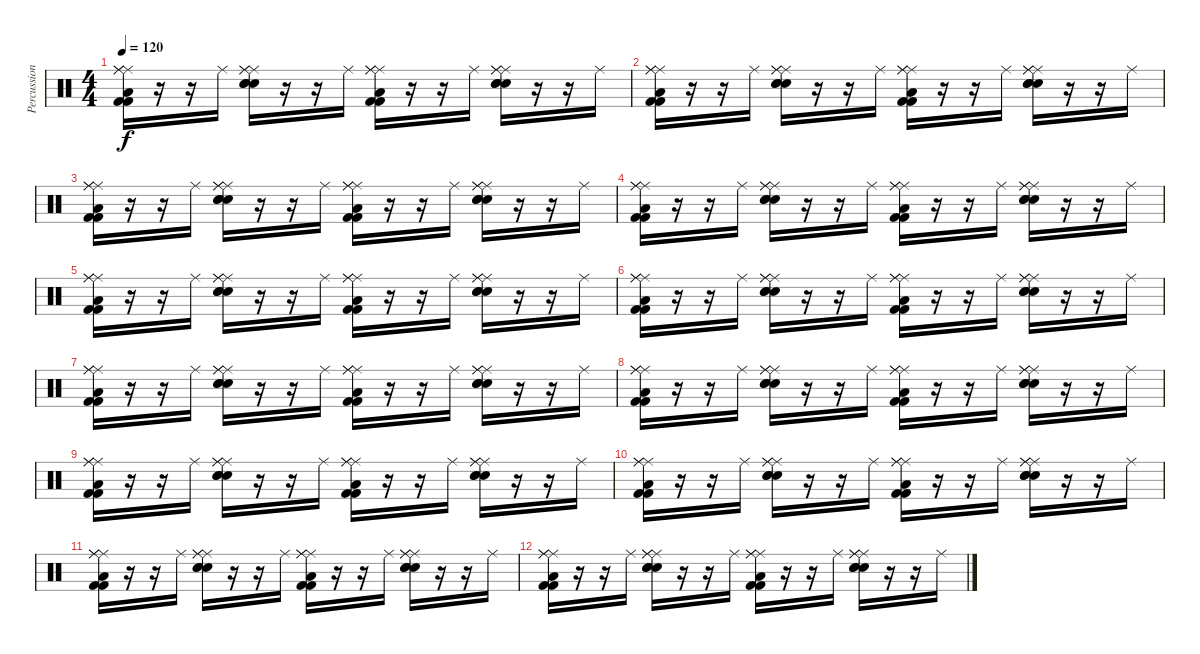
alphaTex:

\track ("Percussion" "Percussion") {instrument percussion}
\staff {score}
\articulation defaults
\ts (4 4)
\tempo 120
\clef neutral
\ks c
("Ride (middle)" "Ride (middle)" "Ride (middle)" "Low Floor Tom (hit)" "Kick (hit) 2" "Kick (hit) 2").16{dy f} r.16 r.16 "Ride (middle)".16 ("Ride (middle)" "Ride (middle)" "Ride (middle)" "Snare (hit) 2" "Snare (hit) 2" "Snare (hit) 2").16 r.16 r.16 "Ride (middle)".16 ("Ride (middle)" "Ride (middle)" "Ride (middle)" "Low Floor Tom (hit)" "Kick (hit) 2" "Kick (hit) 2").16 r.16 r.16 "Ride (middle)".16 ("Ride (middle)" "Ride (middle)" "Ride (middle)" "Snare (hit) 2" "Snare (hit) 2" "Snare (hit) 2").16 r.16 r.16 "Ride (middle)".16 |
("Ride (middle)" "Ride (middle)" "Ride (middle)" "Low Floor Tom (hit)" "Kick (hit) 2" "Kick (hit) 2").16 r.16 r.16 "Ride (middle)".16 ("Ride (middle)" "Ride (middle)" "Ride (middle)" "Snare (hit) 2" "Snare (hit) 2" "Snare (hit) 2").16 r.16 r.16 "Ride (middle)".16 ("Ride (middle)" "Ride (middle)" "Ride (middle)" "Low Floor Tom (hit)" "Kick (hit) 2" "Kick (hit) 2").16 r.16 r.16 "Ride (middle)".16 ("Ride (middle)" "Ride (middle)" "Ride (middle)" "Snare (hit) 2" "Snare (hit) 2" "Snare (hit) 2").16 r.16 r.16 "Ride (middle)".16 |
("Ride (middle)" "Ride (middle)" "Ride (middle)" "Low Floor Tom (hit)" "Kick (hit) 2" "Kick (hit) 2").16 r.16 r.16 "Ride (middle)".16 ("Ride (middle)" "Ride (middle)" "Ride (middle)" "Snare (hit) 2" "Snare (hit) 2" "Snare (hit) 2").16 r.16 r.16 "Ride (middle)".16 ("Ride (middle)" "Ride (middle)" "Ride (middle)" "Low Floor Tom (hit)" "Kick (hit) 2" "Kick (hit) 2").16 r.16 r.16 "Ride (middle)".16 ("Ride (middle)" "Ride (middle)" "Ride (middle)" "Snare (hit) 2" "Snare (hit) 2" "Snare (hit) 2").16 r.16 r.16 "Ride (middle)".16 |
("Ride (middle)" "Ride (middle)" "Ride (middle)" "Low Floor Tom (hit)" "Kick (hit) 2" "Kick (hit) 2").16 r.16 r.16 "Ride (middle)".16 ("Ride (middle)" "Ride (middle)" "Ride (middle)" "Snare (hit) 2" "Snare (hit) 2" "Snare (hit) 2").16 r.16 r.16 "Ride (middle)".16 ("Ride (middle)" "Ride (middle)" "Ride (middle)" "Low Floor Tom (hit)" "Kick (hit) 2" "Kick (hit) 2").16 r.16 r.16 "Ride (middle)".16 ("Ride (middle)" "Ride (middle)" "Ride (middle)" "Snare (hit) 2" "Snare (hit) 2" "Snare (hit) 2").16 r.16 r.16 "Ride (middle)".16 |
("Ride (middle)" "Ride (middle)" "Ride (middle)" "Low Floor Tom (hit)" "Kick (hit) 2" "Kick (hit) 2").16 r.16 r.16 "Ride (middle)".16 ("Ride (middle)" "Ride (middle)" "Ride (middle)" "Snare (hit) 2" "Snare (hit) 2" "Snare (hit) 2").16 r.16 r.16 "Ride (middle)".16 ("Ride (middle)" "Ride (middle)" "Ride (middle)" "Low Floor Tom (hit)" "Kick (hit) 2" "Kick (hit) 2").16 r.16 r.16 "Ride (middle)".16 ("Ride (middle)" "Ride (middle)" "Ride (middle)" "Snare (hit) 2" "Snare (hit) 2" "Snare (hit) 2").16 r.16 r.16 "Ride (middle)".16 |
("Ride (middle)" "Ride (middle)" "Ride (middle)" "Low Floor Tom (hit)" "Kick (hit) 2" "Kick (hit) 2").16 r.16 r.16 "Ride (middle)".16 ("Ride (middle)" "Ride (middle)" "Ride (middle)" "Snare (hit) 2" "Snare (hit) 2" "Snare (hit) 2").16 r.16 r.16 "Ride (middle)".16 ("Ride (middle)" "Ride (middle)" "Ride (middle)" "Low Floor Tom (hit)" "Kick (hit) 2" "Kick (hit) 2").16 r.16 r.16 "Ride (middle)".16 ("Ride (middle)" "Ride (middle)" "Ride (middle)" "Snare (hit) 2" "Snare (hit) 2" "Snare (hit) 2").16 r.16 r.16 "Ride (middle)".16 |
("Ride (middle)" "Ride (middle)" "Ride (middle)" "Low Floor Tom (hit)" "Kick (hit) 2" "Kick (hit) 2").16 r.16 r.16 "Ride (middle)".16 ("Ride (middle)" "Ride (middle)" "Ride (middle)" "Snare (hit) 2" "Snare (hit) 2" "Snare (hit) 2").16 r.16 r.16 "Ride (middle)".16 ("Ride (middle)" "Ride (middle)" "Ride (middle)" "Low Floor Tom (hit)" "Kick (hit) 2" "Kick (hit) 2").16 r.16 r.16 "Ride (middle)".16 ("Ride (middle)" "Ride (middle)" "Ride (middle)" "Snare (hit) 2" "Snare (hit) 2" "Snare (hit) 2").16 r.16 r.16 "Ride (middle)".16 |
("Ride (middle)" "Ride (middle)" "Ride (middle)" "Low Floor Tom (hit)" "Kick (hit) 2" "Kick (hit) 2").16 r.16 r.16 "Ride (middle)".16 ("Ride (middle)" "Ride (middle)" "Ride (middle)" "Snare (hit) 2" "Snare (hit) 2" "Snare (hit) 2").16 r.16 r.16 "Ride (middle)".16 ("Ride (middle)" "Ride (middle)" "Ride (middle)" "Low Floor Tom (hit)" "Kick (hit) 2" "Kick (hit) 2").16 r.16 r.16 "Ride (middle)".16 ("Ride (middle)" "Ride (middle)" "Ride (middle)" "Snare (hit) 2" "Snare (hit) 2" "Snare (hit) 2").16 r.16 r.16 "Ride (middle)".16 |
("Ride (middle)" "Ride (middle)" "Ride (middle)" "Low Floor Tom (hit)" "Kick (hit) 2" "Kick (hit) 2").16 r.16 r.16 "Ride (middle)".16 ("Ride (middle)" "Ride (middle)" "Ride (middle)" "Snare (hit) 2" "Snare (hit) 2" "Snare (hit) 2").16 r.16 r.16 "Ride (middle)".16 ("Ride (middle)" "Ride (middle)" "Ride (middle)" "Low Floor Tom (hit)" "Kick (hit) 2" "Kick (hit) 2").16 r.16 r.16 "Ride (middle)".16 ("Ride (middle)" "Ride (middle)" "Ride (middle)" "Snare (hit) 2" "Snare (hit) 2" "Snare (hit) 2").16 r.16 r.16 "Ride (middle)".16 |
("Ride (middle)" "Ride (middle)" "Ride (middle)" "Low Floor Tom (hit)" "Kick (hit) 2" "Kick (hit) 2").16 r.16 r.16 "Ride (middle)".16 ("Ride (middle)" "Ride (middle)" "Ride (middle)" "Snare (hit) 2" "Snare (hit) 2" "Snare (hit) 2").16 r.16 r.16 "Ride (middle)".16 ("Ride (middle)" "Ride (middle)" "Ride (middle)" "Low Floor Tom (hit)" "Kick (hit) 2" "Kick (hit) 2").16 r.16 r.16 "Ride (middle)".16 ("Ride (middle)" "Ride (middle)" "Ride (middle)" "Snare (hit) 2" "Snare (hit) 2" "Snare (hit) 2").16 r.16 r.16 "Ride (middle)".16 |
("Ride (middle)" "Ride (middle)" "Ride (middle)" "Low Floor Tom (hit)" "Kick (hit) 2" "Kick (hit) 2").16 r.16 r.16 "Ride (middle)".16 ("Ride (middle)" "Ride (middle)" "Ride (middle)" "Snare (hit) 2" "Snare (hit) 2" "Snare (hit) 2").16 r.16 r.16 "Ride (middle)".16 ("Ride (middle)" "Ride (middle)" "Ride (middle)" "Low Floor Tom (hit)" "Kick (hit) 2" "Kick (hit) 2").16 r.16 r.16 "Ride (middle)".16 ("Ride (middle)" "Ride (middle)" "Ride (middle)" "Snare (hit) 2" "Snare (hit) 2" "Snare (hit) 2").16 r.16 r.16 "Ride (middle)".16 |
("Ride (middle)" "Ride (middle)" "Ride (middle)" "Low Floor Tom (hit)" "Kick (hit) 2" "Kick (hit) 2").16 r.16 r.16 "Ride (middle)".16 ("Ride (middle)" "Ride (middle)" "Ride (middle)" "Snare (hit) 2" "Snare (hit) 2" "Snare (hit) 2").16 r.16 r.16 "Ride (middle)".16 ("Ride (middle)" "Ride (middle)" "Ride (middle)" "Low Floor Tom (hit)" "Kick (hit) 2" "Kick (hit) 2").16 r.16 r.16 "Ride (middle)".16 ("Ride (middle)" "Ride (middle)" "Ride (middle)" "Snare (hit) 2" "Snare (hit) 2" "Snare (hit) 2").16 r.16 r.16 "Ride (middle)".16
